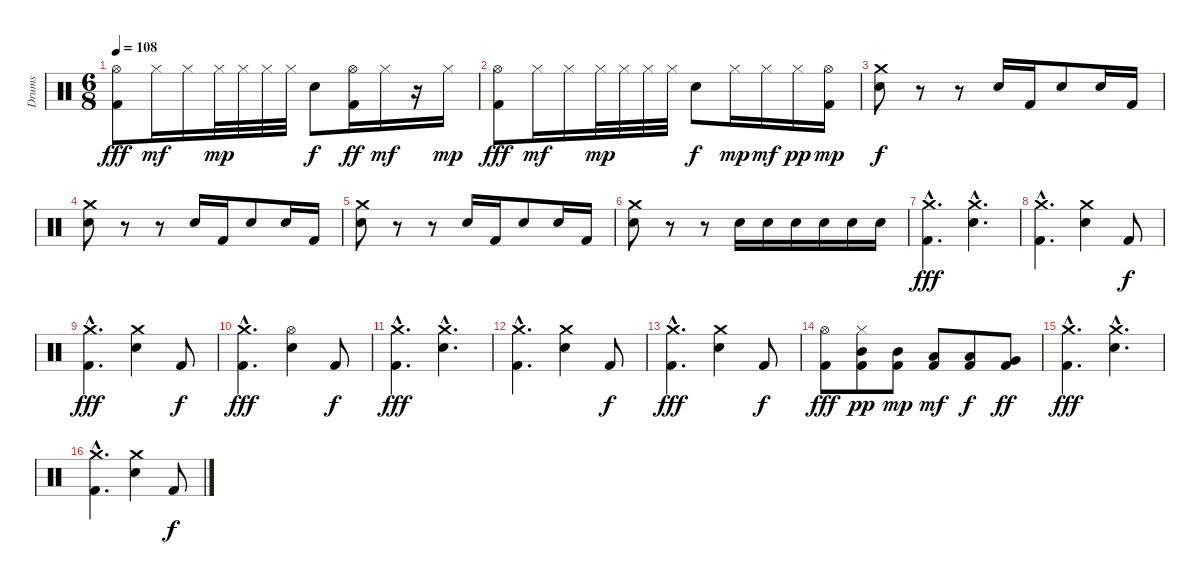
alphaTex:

\track ("Drums" "Drums") {instrument percussion}
\staff {score}
\articulation defaults
\ts (6 8)
\tempo 108
\clef neutral
\ks c
("Hi-Hat (open)" "Kick (hit) 2").8{dy fff} "Hi-Hat (closed)".16{dy mf} "Hi-Hat (closed)".16 "Hi-Hat (closed)".32{dy mp} "Hi-Hat (closed)".32 "Hi-Hat (closed)".32 "Hi-Hat (closed)".32 "Snare (hit) 2".8{dy f} ("Hi-Hat (open)" "Kick (hit) 2").16{dy ff} "Hi-Hat (closed)".16{dy mf} r.16 "Hi-Hat (closed)".16{dy mp} |
("Hi-Hat (open)" "Kick (hit) 2").8{dy fff} "Hi-Hat (closed)".16{dy mf} "Hi-Hat (closed)".16 "Hi-Hat (closed)".32{dy mp} "Hi-Hat (closed)".32 "Hi-Hat (closed)".32 "Hi-Hat (closed)".32 "Snare (hit) 2".8{dy f} "Hi-Hat (closed)".16{dy mp} "Hi-Hat (closed)".16{dy mf} "Hi-Hat (closed)".16{dy pp} ("Hi-Hat (open)" "Kick (hit) 2").16{dy mp} |
("Crash medium (hit)" "Snare (hit) 2").8{dy f} r.8 r.8 "Snare (hit) 2".16 "Kick (hit) 2".16 "Snare (hit) 2".8 "Snare (hit) 2".16 "Kick (hit) 2".16 |
("Crash medium (hit)" "Snare (hit) 2").8 r.8 r.8 "Snare (hit) 2".16 "Kick (hit) 2".16 "Snare (hit) 2".8 "Snare (hit) 2".16 "Kick (hit) 2".16 |
("Crash medium (hit)" "Snare (hit) 2").8 r.8 r.8 "Snare (hit) 2".16 "Kick (hit) 2".16 "Snare (hit) 2".8 "Snare (hit) 2".16 "Kick (hit) 2".16 |
("Crash medium (hit)" "Snare (hit) 2").8 r.8 r.8 "Snare (hit) 2".16 "Snare (hit) 2".16 "Snare (hit) 2".16 "Snare (hit) 2".16 "Snare (hit) 2".16 "Snare (hit) 2".16 |
("Crash medium (hit)"{hac} "Kick (hit) 2"{hac}).4{d dy fff} ("Crash medium (hit)"{hac} "Snare (hit) 2"{hac}).4{d} |
("Crash medium (hit)"{hac} "Kick (hit) 2"{hac}).4{d} ("Crash medium (hit)" "Snare (hit) 2").4 "Kick (hit) 2".8{dy f} |
("Crash medium (hit)"{hac} "Kick (hit) 2"{hac}).4{d dy fff} ("Crash medium (hit)" "Snare (hit) 2").4 "Kick (hit) 2".8{dy f} |
("Crash medium (hit)"{hac} "Kick (hit) 2"{hac}).4{d dy fff} ("Hi-Hat (open)" "Snare (hit) 2").4 "Kick (hit) 2".8{dy f} |
("Crash medium (hit)"{hac} "Kick (hit) 2"{hac}).4{d dy fff} ("Crash medium (hit)"{hac} "Snare (hit) 2"{hac}).4{d} |
("Crash medium (hit)"{hac} "Kick (hit) 2"{hac}).4{d} ("Crash medium (hit)" "Snare (hit) 2").4 "Kick (hit) 2".8{dy f} |
("Crash medium (hit)"{hac} "Kick (hit) 2"{hac}).4{d dy fff} ("Crash medium (hit)" "Snare (hit) 2").4 "Kick (hit) 2".8{dy f} |
("Hi-Hat (open)" "Kick (hit) 2").8{dy fff} ("Hi-Hat (closed)" "Mid Tom (hit)" "Kick (hit) 2").8{dy pp} ("Mid Tom (hit)" "Kick (hit) 2").8{dy mp} ("Low Tom (hit)" "Kick (hit) 2").8{dy mf} ("Low Tom (hit)" "Kick (hit) 2").8{dy f} ("Very Low Tom (hit)" "Kick (hit) 2").8{dy ff} |
("Crash medium (hit)"{hac} "Kick (hit) 2"{hac}).4{d dy fff} ("Crash medium (hit)"{hac} "Snare (hit) 2"{hac}).4{d} |
("Crash medium (hit)"{hac} "Kick (hit) 2"{hac}).4{d} ("Crash medium (hit)" "Snare (hit) 2").4 "Kick (hit) 2".8{dy f}
